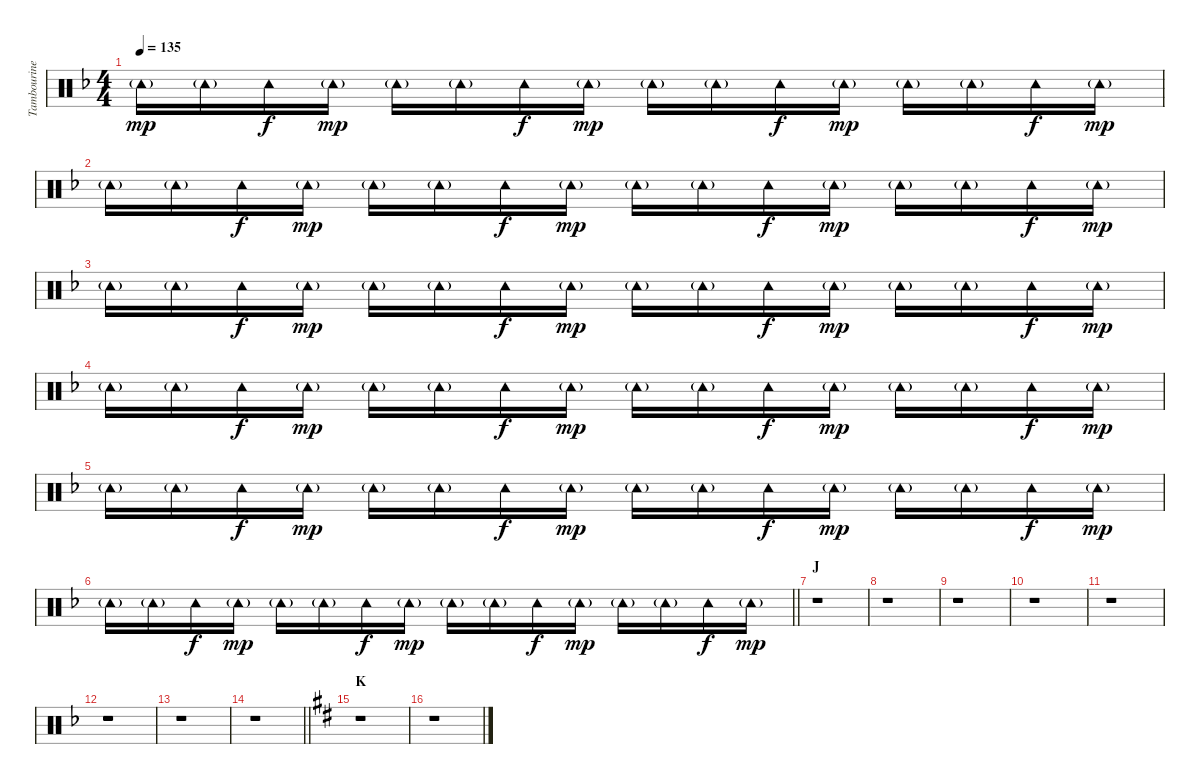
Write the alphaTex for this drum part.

\track ("Tambourine" "Tambourine") {instrument percussion}
\staff {score}
\articulation defaults
\ts (4 4)
\tempo 135
\clef neutral
\ks f "Tambourine (hit)"{g}.16{dy mp} "Tambourine (hit)"{g}.16 "Tambourine (hit)".16{dy f} "Tambourine (hit)"{g}.16{dy mp} "Tambourine (hit)"{g}.16 "Tambourine (hit)"{g}.16 "Tambourine (hit)".16{dy f} "Tambourine (hit)"{g}.16{dy mp} "Tambourine (hit)"{g}.16 "Tambourine (hit)"{g}.16 "Tambourine (hit)".16{dy f} "Tambourine (hit)"{g}.16{dy mp} "Tambourine (hit)"{g}.16 "Tambourine (hit)"{g}.16 "Tambourine (hit)".16{dy f} "Tambourine (hit)"{g}.16{dy mp}
|
"Tambourine (hit)"{g}.16 "Tambourine (hit)"{g}.16 "Tambourine (hit)".16{dy f} "Tambourine (hit)"{g}.16{dy mp} "Tambourine (hit)"{g}.16 "Tambourine (hit)"{g}.16 "Tambourine (hit)".16{dy f} "Tambourine (hit)"{g}.16{dy mp} "Tambourine (hit)"{g}.16 "Tambourine (hit)"{g}.16 "Tambourine (hit)".16{dy f} "Tambourine (hit)"{g}.16{dy mp} "Tambourine (hit)"{g}.16 "Tambourine (hit)"{g}.16 "Tambourine (hit)".16{dy f} "Tambourine (hit)"{g}.16{dy mp} |
"Tambourine (hit)"{g}.16 "Tambourine (hit)"{g}.16 "Tambourine (hit)".16{dy f} "Tambourine (hit)"{g}.16{dy mp} "Tambourine (hit)"{g}.16 "Tambourine (hit)"{g}.16 "Tambourine (hit)".16{dy f} "Tambourine (hit)"{g}.16{dy mp} "Tambourine (hit)"{g}.16 "Tambourine (hit)"{g}.16 "Tambourine (hit)".16{dy f} "Tambourine (hit)"{g}.16{dy mp} "Tambourine (hit)"{g}.16 "Tambourine (hit)"{g}.16 "Tambourine (hit)".16{dy f} "Tambourine (hit)"{g}.16{dy mp} |
"Tambourine (hit)"{g}.16 "Tambourine (hit)"{g}.16 "Tambourine (hit)".16{dy f} "Tambourine (hit)"{g}.16{dy mp} "Tambourine (hit)"{g}.16 "Tambourine (hit)"{g}.16 "Tambourine (hit)".16{dy f} "Tambourine (hit)"{g}.16{dy mp} "Tambourine (hit)"{g}.16 "Tambourine (hit)"{g}.16 "Tambourine (hit)".16{dy f} "Tambourine (hit)"{g}.16{dy mp} "Tambourine (hit)"{g}.16 "Tambourine (hit)"{g}.16 "Tambourine (hit)".16{dy f} "Tambourine (hit)"{g}.16{dy mp} |
"Tambourine (hit)"{g}.16 "Tambourine (hit)"{g}.16 "Tambourine (hit)".16{dy f} "Tambourine (hit)"{g}.16{dy mp} "Tambourine (hit)"{g}.16 "Tambourine (hit)"{g}.16 "Tambourine (hit)".16{dy f} "Tambourine (hit)"{g}.16{dy mp} "Tambourine (hit)"{g}.16 "Tambourine (hit)"{g}.16 "Tambourine (hit)".16{dy f} "Tambourine (hit)"{g}.16{dy mp} "Tambourine (hit)"{g}.16 "Tambourine (hit)"{g}.16 "Tambourine (hit)".16{dy f} "Tambourine (hit)"{g}.16{dy mp} |
\barLineRight lightlight "Tambourine (hit)"{g}.16 "Tambourine (hit)"{g}.16 "Tambourine (hit)".16{dy f} "Tambourine (hit)"{g}.16{dy mp} "Tambourine (hit)"{g}.16 "Tambourine (hit)"{g}.16 "Tambourine (hit)".16{dy f} "Tambourine (hit)"{g}.16{dy mp} "Tambourine (hit)"{g}.16 "Tambourine (hit)"{g}.16 "Tambourine (hit)".16{dy f} "Tambourine (hit)"{g}.16{dy mp} "Tambourine (hit)"{g}.16 "Tambourine (hit)"{g}.16 "Tambourine (hit)".16{dy f} "Tambourine (hit)"{g}.16{dy mp}
|
\section ("" "J")
r.1 |
r.1 |
r.1 |
r.1 |
r.1 |
r.1 |
r.1 |
\barLineRight lightlight
r.1 |
\section ("" "K")
\ks d
r.1 |
r.1
